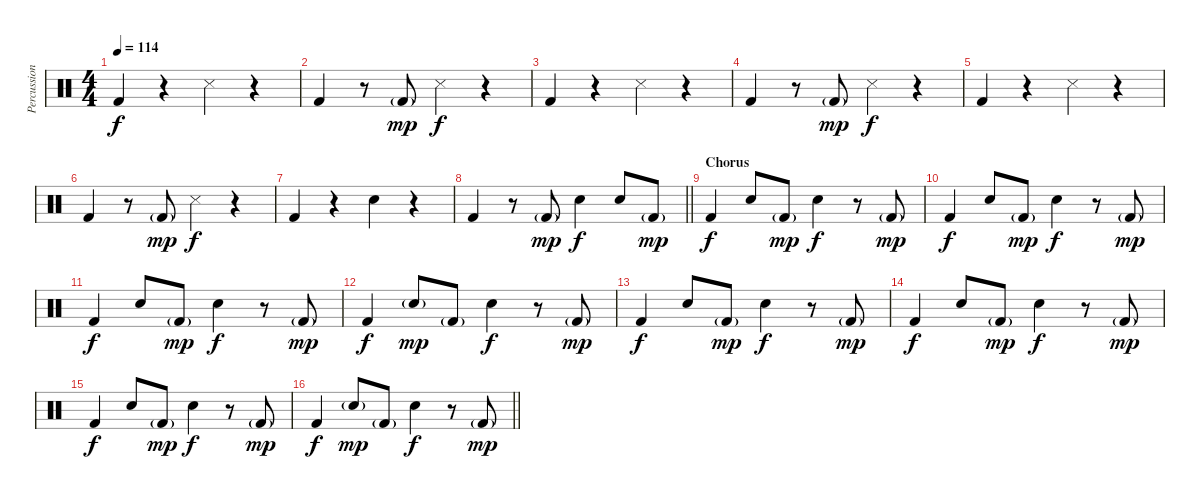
\track ("Percussion" "Percussion") {instrument percussion}
\staff {score}
\articulation defaults
\ts (4 4)
\tempo 114
\clef neutral
\ks c "Kick (hit) 2".4{dy f}
r.4 "Snare (side stick) 3".4 r.4 |
"Kick (hit) 2".4 r.8 "Kick (hit) 2"{g}.8{dy mp} "Snare (side stick) 3".4{dy f} r.4 |
"Kick (hit) 2".4 r.4 "Snare (side stick) 3".4 r.4 |
"Kick (hit) 2".4 r.8 "Kick (hit) 2"{g}.8{dy mp} "Snare (side stick) 3".4{dy f} r.4 |
"Kick (hit) 2".4 r.4 "Snare (side stick) 3".4 r.4 |
"Kick (hit) 2".4 r.8 "Kick (hit) 2"{g}.8{dy mp} "Snare (side stick) 3".4{dy f} r.4 |
"Kick (hit) 2".4 r.4 "Snare (hit) 2".4 r.4 |
\barLineRight lightlight "Kick (hit) 2".4
r.8 "Kick (hit) 2"{g}.8{dy mp} "Snare (hit) 2".4{dy f} "Snare (hit) 2".8 "Kick (hit) 2"{g}.8{dy mp} |
\section ("" "Chorus")
"Kick (hit) 2".4{dy f} "Snare (hit) 2".8 "Kick (hit) 2"{g}.8{dy mp} "Snare (hit) 2".4{dy f} r.8 "Kick (hit) 2"{g}.8{dy mp} |
"Kick (hit) 2".4{dy f} "Snare (hit) 2".8 "Kick (hit) 2"{g}.8{dy mp} "Snare (hit) 2".4{dy f} r.8 "Kick (hit) 2"{g}.8{dy mp} |
"Kick (hit) 2".4{dy f} "Snare (hit) 2".8 "Kick (hit) 2"{g}.8{dy mp} "Snare (hit) 2".4{dy f} r.8 "Kick (hit) 2"{g}.8{dy mp} |
"Kick (hit) 2".4{dy f} "Snare (hit) 2"{g}.8{dy mp} "Kick (hit) 2"{g}.8 "Snare (hit) 2".4{dy f} r.8 "Kick (hit) 2"{g}.8{dy mp} |
"Kick (hit) 2".4{dy f} "Snare (hit) 2".8 "Kick (hit) 2"{g}.8{dy mp} "Snare (hit) 2".4{dy f} r.8 "Kick (hit) 2"{g}.8{dy mp} |
"Kick (hit) 2".4{dy f} "Snare (hit) 2".8 "Kick (hit) 2"{g}.8{dy mp} "Snare (hit) 2".4{dy f} r.8 "Kick (hit) 2"{g}.8{dy mp} |
"Kick (hit) 2".4{dy f} "Snare (hit) 2".8 "Kick (hit) 2"{g}.8{dy mp} "Snare (hit) 2".4{dy f} r.8 "Kick (hit) 2"{g}.8{dy mp} |
\barLineRight lightlight "Kick (hit) 2".4{dy f} "Snare (hit) 2"{g}.8{dy mp} "Kick (hit) 2"{g}.8 "Snare (hit) 2".4{dy f}
r.8 "Kick (hit) 2"{g}.8{dy mp}
